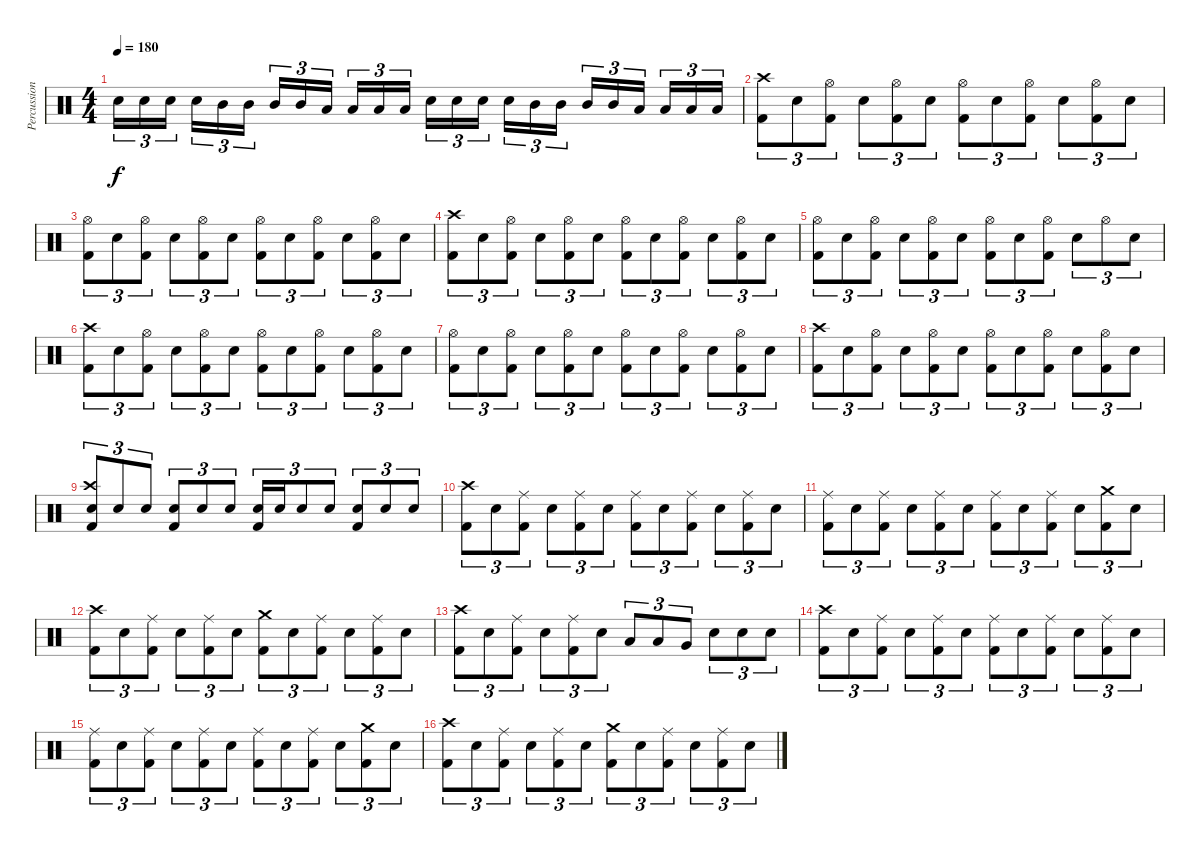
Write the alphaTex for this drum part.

\track ("Percussion" "Percussion") {instrument percussion}
\staff {score}
\articulation defaults
\ts (4 4)
\tempo 180
\clef neutral
\ks c "Electric Snare (hit)".16{tu (3 2) dy f} "Electric Snare (hit)".16{tu (3 2)} "Electric Snare (hit)".16{tu (3 2)} "Electric Snare (hit)".16{tu (3 2)} "Mid Tom (hit)".16{tu (3 2)} "Mid Tom (hit)".16{tu (3 2)} "Mid Tom (hit)".16{tu (3 2)} "Mid Tom (hit)".16{tu (3 2)} "Low Tom (hit)".16{tu (3 2)} "Low Tom (hit)".16{tu (3 2)} "Low Tom (hit)".16{tu (3 2)} "Low Tom (hit)".16{tu (3 2)} "Electric Snare (hit)".16{tu (3 2)} "Electric Snare (hit)".16{tu (3 2)} "Electric Snare (hit)".16{tu (3 2)} "Electric Snare (hit)".16{tu (3 2)} "Mid Tom (hit)".16{tu (3 2)} "Mid Tom (hit)".16{tu (3 2)} "Mid Tom (hit)".16{tu (3 2)} "Mid Tom (hit)".16{tu (3 2)} "Low Tom (hit)".16{tu (3 2)} "Low Tom (hit)".16{tu (3 2)} "Low Tom (hit)".16{tu (3 2)} "Low Tom (hit)".16{tu (3 2)}
|
("Crash high (hit)" "Kick (hit) 2").8{tu (3 2)} "Electric Snare (hit)".8{tu (3 2)} ("Hi-Hat (open)" "Kick (hit) 2").8{tu (3 2)} "Electric Snare (hit)".8{tu (3 2)} ("Hi-Hat (open)" "Kick (hit) 2").8{tu (3 2)} "Electric Snare (hit)".8{tu (3 2)} ("Hi-Hat (open)" "Kick (hit) 2").8{tu (3 2)} "Electric Snare (hit)".8{tu (3 2)} ("Hi-Hat (open)" "Kick (hit) 2").8{tu (3 2)} "Electric Snare (hit)".8{tu (3 2)} ("Hi-Hat (open)" "Kick (hit) 2").8{tu (3 2)} "Electric Snare (hit)".8{tu (3 2)} |
("Hi-Hat (open)" "Kick (hit) 2").8{tu (3 2)} "Electric Snare (hit)".8{tu (3 2)} ("Hi-Hat (open)" "Kick (hit) 2").8{tu (3 2)} "Electric Snare (hit)".8{tu (3 2)} ("Hi-Hat (open)" "Kick (hit) 2").8{tu (3 2)} "Electric Snare (hit)".8{tu (3 2)} ("Hi-Hat (open)" "Kick (hit) 2").8{tu (3 2)} "Electric Snare (hit)".8{tu (3 2)} ("Hi-Hat (open)" "Kick (hit) 2").8{tu (3 2)} "Electric Snare (hit)".8{tu (3 2)} ("Hi-Hat (open)" "Kick (hit) 2").8{tu (3 2)} "Electric Snare (hit)".8{tu (3 2)} |
("Crash high (hit)" "Kick (hit) 2").8{tu (3 2)} "Electric Snare (hit)".8{tu (3 2)} ("Hi-Hat (open)" "Kick (hit) 2").8{tu (3 2)} "Electric Snare (hit)".8{tu (3 2)} ("Hi-Hat (open)" "Kick (hit) 2").8{tu (3 2)} "Electric Snare (hit)".8{tu (3 2)} ("Hi-Hat (open)" "Kick (hit) 2").8{tu (3 2)} "Electric Snare (hit)".8{tu (3 2)} ("Hi-Hat (open)" "Kick (hit) 2").8{tu (3 2)} "Electric Snare (hit)".8{tu (3 2)} ("Hi-Hat (open)" "Kick (hit) 2").8{tu (3 2)} "Electric Snare (hit)".8{tu (3 2)} |
("Hi-Hat (open)" "Kick (hit) 2").8{tu (3 2)} "Electric Snare (hit)".8{tu (3 2)} ("Hi-Hat (open)" "Kick (hit) 2").8{tu (3 2)} "Electric Snare (hit)".8{tu (3 2)} ("Hi-Hat (open)" "Kick (hit) 2").8{tu (3 2)} "Electric Snare (hit)".8{tu (3 2)} ("Hi-Hat (open)" "Kick (hit) 2").8{tu (3 2)} "Electric Snare (hit)".8{tu (3 2)} ("Hi-Hat (open)" "Kick (hit) 2").8{tu (3 2)} "Electric Snare (hit)".8{tu (3 2)} "Hi-Hat (open)".8{tu (3 2)} "Electric Snare (hit)".8{tu (3 2)} |
("Crash high (hit)" "Kick (hit) 2").8{tu (3 2)} "Electric Snare (hit)".8{tu (3 2)} ("Hi-Hat (open)" "Kick (hit) 2").8{tu (3 2)} "Electric Snare (hit)".8{tu (3 2)} ("Hi-Hat (open)" "Kick (hit) 2").8{tu (3 2)} "Electric Snare (hit)".8{tu (3 2)} ("Hi-Hat (open)" "Kick (hit) 2").8{tu (3 2)} "Electric Snare (hit)".8{tu (3 2)} ("Hi-Hat (open)" "Kick (hit) 2").8{tu (3 2)} "Electric Snare (hit)".8{tu (3 2)} ("Hi-Hat (open)" "Kick (hit) 2").8{tu (3 2)} "Electric Snare (hit)".8{tu (3 2)} |
("Hi-Hat (open)" "Kick (hit) 2").8{tu (3 2)} "Electric Snare (hit)".8{tu (3 2)} ("Hi-Hat (open)" "Kick (hit) 2").8{tu (3 2)} "Electric Snare (hit)".8{tu (3 2)} ("Hi-Hat (open)" "Kick (hit) 2").8{tu (3 2)} "Electric Snare (hit)".8{tu (3 2)} ("Hi-Hat (open)" "Kick (hit) 2").8{tu (3 2)} "Electric Snare (hit)".8{tu (3 2)} ("Hi-Hat (open)" "Kick (hit) 2").8{tu (3 2)} "Electric Snare (hit)".8{tu (3 2)} ("Hi-Hat (open)" "Kick (hit) 2").8{tu (3 2)} "Electric Snare (hit)".8{tu (3 2)} |
("Crash high (hit)" "Kick (hit) 2").8{tu (3 2)} "Electric Snare (hit)".8{tu (3 2)} ("Hi-Hat (open)" "Kick (hit) 2").8{tu (3 2)} "Electric Snare (hit)".8{tu (3 2)} ("Hi-Hat (open)" "Kick (hit) 2").8{tu (3 2)} "Electric Snare (hit)".8{tu (3 2)} ("Hi-Hat (open)" "Kick (hit) 2").8{tu (3 2)} "Electric Snare (hit)".8{tu (3 2)} ("Hi-Hat (open)" "Kick (hit) 2").8{tu (3 2)} "Electric Snare (hit)".8{tu (3 2)} ("Hi-Hat (open)" "Kick (hit) 2").8{tu (3 2)} "Electric Snare (hit)".8{tu (3 2)} |
("Crash high (hit)" "Electric Snare (hit)" "Kick (hit) 2").8{tu (3 2)} "Electric Snare (hit)".8{tu (3 2)} "Electric Snare (hit)".8{tu (3 2)} ("Electric Snare (hit)" "Kick (hit) 2").8{tu (3 2)} "Electric Snare (hit)".8{tu (3 2)} "Electric Snare (hit)".8{tu (3 2)} ("Electric Snare (hit)" "Kick (hit) 2").16{tu (3 2)} "Electric Snare (hit)".16{tu (3 2)} "Electric Snare (hit)".8{tu (3 2)} "Electric Snare (hit)".8{tu (3 2)} ("Electric Snare (hit)" "Kick (hit) 2").8{tu (3 2)} "Electric Snare (hit)".8{tu (3 2)} "Electric Snare (hit)".8{tu (3 2)} |
("Crash high (hit)" "Kick (hit) 2").8{tu (3 2)} "Electric Snare (hit)".8{tu (3 2)} ("Ride (middle)" "Kick (hit) 2").8{tu (3 2)} "Electric Snare (hit)".8{tu (3 2)} ("Ride (middle)" "Kick (hit) 2").8{tu (3 2)} "Electric Snare (hit)".8{tu (3 2)} ("Ride (middle)" "Kick (hit) 2").8{tu (3 2)} "Electric Snare (hit)".8{tu (3 2)} ("Ride (middle)" "Kick (hit) 2").8{tu (3 2)} "Electric Snare (hit)".8{tu (3 2)} ("Ride (middle)" "Kick (hit) 2").8{tu (3 2)} "Electric Snare (hit)".8{tu (3 2)} |
("Ride (middle)" "Kick (hit) 2").8{tu (3 2)} "Electric Snare (hit)".8{tu (3 2)} ("Ride (middle)" "Kick (hit) 2").8{tu (3 2)} "Electric Snare (hit)".8{tu (3 2)} ("Ride (middle)" "Kick (hit) 2").8{tu (3 2)} "Electric Snare (hit)".8{tu (3 2)} ("Ride (middle)" "Kick (hit) 2").8{tu (3 2)} "Electric Snare (hit)".8{tu (3 2)} ("Ride (middle)" "Kick (hit) 2").8{tu (3 2)} "Electric Snare (hit)".8{tu (3 2)} ("Crash medium (hit)" "Kick (hit) 2").8{tu (3 2)} "Electric Snare (hit)".8{tu (3 2)} |
("Crash high (hit)" "Kick (hit) 2").8{tu (3 2)} "Electric Snare (hit)".8{tu (3 2)} ("Ride (middle)" "Kick (hit) 2").8{tu (3 2)} "Electric Snare (hit)".8{tu (3 2)} ("Ride (middle)" "Kick (hit) 2").8{tu (3 2)} "Electric Snare (hit)".8{tu (3 2)} ("Crash medium (hit)" "Kick (hit) 2").8{tu (3 2)} "Electric Snare (hit)".8{tu (3 2)} ("Ride (middle)" "Kick (hit) 2").8{tu (3 2)} "Electric Snare (hit)".8{tu (3 2)} ("Ride (middle)" "Kick (hit) 2").8{tu (3 2)} "Electric Snare (hit)".8{tu (3 2)} |
("Crash high (hit)" "Kick (hit) 2").8{tu (3 2)} "Electric Snare (hit)".8{tu (3 2)} ("Ride (middle)" "Kick (hit) 2").8{tu (3 2)} "Electric Snare (hit)".8{tu (3 2)} ("Ride (middle)" "Kick (hit) 2").8{tu (3 2)} "Electric Snare (hit)".8{tu (3 2)} "Low Tom (hit)".8{tu (3 2)} "Low Tom (hit)".8{tu (3 2)} "Very Low Tom (hit)".8{tu (3 2)} "Electric Snare (hit)".8{tu (3 2)} "Electric Snare (hit)".8{tu (3 2)} "Electric Snare (hit)".8{tu (3 2)} |
("Crash high (hit)" "Kick (hit) 2").8{tu (3 2)} "Electric Snare (hit)".8{tu (3 2)} ("Ride (middle)" "Kick (hit) 2").8{tu (3 2)} "Electric Snare (hit)".8{tu (3 2)} ("Ride (middle)" "Kick (hit) 2").8{tu (3 2)} "Electric Snare (hit)".8{tu (3 2)} ("Ride (middle)" "Kick (hit) 2").8{tu (3 2)} "Electric Snare (hit)".8{tu (3 2)} ("Ride (middle)" "Kick (hit) 2").8{tu (3 2)} "Electric Snare (hit)".8{tu (3 2)} ("Ride (middle)" "Kick (hit) 2").8{tu (3 2)} "Electric Snare (hit)".8{tu (3 2)} |
("Ride (middle)" "Kick (hit) 2").8{tu (3 2)} "Electric Snare (hit)".8{tu (3 2)} ("Ride (middle)" "Kick (hit) 2").8{tu (3 2)} "Electric Snare (hit)".8{tu (3 2)} ("Ride (middle)" "Kick (hit) 2").8{tu (3 2)} "Electric Snare (hit)".8{tu (3 2)} ("Ride (middle)" "Kick (hit) 2").8{tu (3 2)} "Electric Snare (hit)".8{tu (3 2)} ("Ride (middle)" "Kick (hit) 2").8{tu (3 2)} "Electric Snare (hit)".8{tu (3 2)} ("Crash medium (hit)" "Kick (hit) 2").8{tu (3 2)} "Electric Snare (hit)".8{tu (3 2)} |
("Crash high (hit)" "Kick (hit) 2").8{tu (3 2)} "Electric Snare (hit)".8{tu (3 2)} ("Ride (middle)" "Kick (hit) 2").8{tu (3 2)} "Electric Snare (hit)".8{tu (3 2)} ("Ride (middle)" "Kick (hit) 2").8{tu (3 2)} "Electric Snare (hit)".8{tu (3 2)} ("Crash medium (hit)" "Kick (hit) 2").8{tu (3 2)} "Electric Snare (hit)".8{tu (3 2)} ("Ride (middle)" "Kick (hit) 2").8{tu (3 2)} "Electric Snare (hit)".8{tu (3 2)} ("Ride (middle)" "Kick (hit) 2").8{tu (3 2)} "Electric Snare (hit)".8{tu (3 2)}
